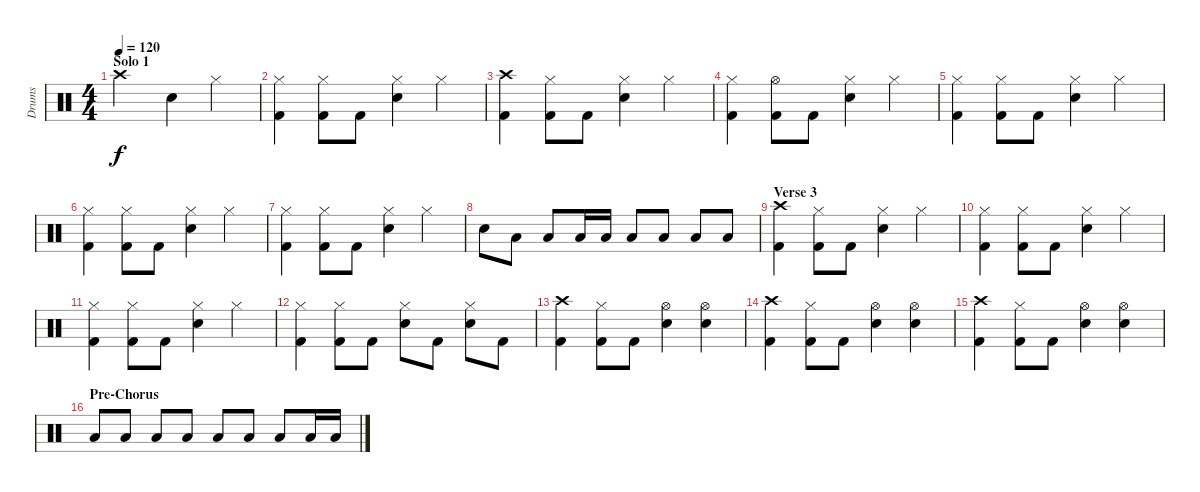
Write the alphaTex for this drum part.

\track ("Drums" "Drums") {instrument percussion}
\staff {score}
\articulation defaults
\ts (4 4)
\section ("" "Solo 1")
\tempo 120
\clef neutral
\ks c "Crash high (hit)".2{dy f} "Snare (hit) 2".4 "Hi-Hat (closed)".4
|
("Hi-Hat (closed)" "Kick (hit) 2").4 ("Hi-Hat (closed)" "Kick (hit) 2").8 "Kick (hit) 2".8 ("Hi-Hat (closed)" "Snare (hit) 2").4 "Hi-Hat (closed)".4 |
("Crash high (hit)" "Kick (hit) 2").4 ("Hi-Hat (closed)" "Kick (hit) 2").8 "Kick (hit) 2".8 ("Hi-Hat (closed)" "Snare (hit) 2").4 "Hi-Hat (closed)".4 |
("Hi-Hat (closed)" "Kick (hit) 2").4 ("Hi-Hat (open)" "Kick (hit) 2").8 "Kick (hit) 2".8 ("Hi-Hat (closed)" "Snare (hit) 2").4 "Hi-Hat (closed)".4 |
("Hi-Hat (closed)" "Kick (hit) 2").4 ("Hi-Hat (closed)" "Kick (hit) 2").8 "Kick (hit) 2".8 ("Hi-Hat (closed)" "Snare (hit) 2").4 "Hi-Hat (closed)".4 |
("Hi-Hat (closed)" "Kick (hit) 2").4 ("Hi-Hat (closed)" "Kick (hit) 2").8 "Kick (hit) 2".8 ("Hi-Hat (closed)" "Snare (hit) 2").4 "Hi-Hat (closed)".4 |
("Hi-Hat (closed)" "Kick (hit) 2").4 ("Hi-Hat (closed)" "Kick (hit) 2").8 "Kick (hit) 2".8 ("Hi-Hat (closed)" "Snare (hit) 2").4 "Hi-Hat (closed)".4 |
"Snare (hit) 2".8 "Low Tom (hit)".8 "Low Tom (hit)".8 "Low Tom (hit)".16 "Low Tom (hit)".16 "Low Tom (hit)".8 "Low Tom (hit)".8 "Low Tom (hit)".8 "Low Tom (hit)".8 |
\section ("" "Verse 3")
("Crash high (hit)" "Kick (hit) 2").4 ("Hi-Hat (closed)" "Kick (hit) 2").8 "Kick (hit) 2".8 ("Hi-Hat (closed)" "Snare (hit) 2").4 "Hi-Hat (closed)".4 |
("Hi-Hat (closed)" "Kick (hit) 2").4 ("Hi-Hat (closed)" "Kick (hit) 2").8 "Kick (hit) 2".8 ("Hi-Hat (closed)" "Snare (hit) 2").4 "Hi-Hat (closed)".4 |
("Hi-Hat (closed)" "Kick (hit) 2").4 ("Hi-Hat (closed)" "Kick (hit) 2").8 "Kick (hit) 2".8 ("Hi-Hat (closed)" "Snare (hit) 2").4 "Hi-Hat (closed)".4 |
("Hi-Hat (closed)" "Kick (hit) 2").4 ("Hi-Hat (closed)" "Kick (hit) 2").8 "Kick (hit) 2".8 ("Hi-Hat (closed)" "Snare (hit) 2").8 "Kick (hit) 2".8 ("Hi-Hat (closed)" "Snare (hit) 2").8 "Kick (hit) 2".8 |
("Crash high (hit)" "Kick (hit) 2").4 ("Hi-Hat (closed)" "Kick (hit) 2").8 "Kick (hit) 2".8 ("Hi-Hat (open)" "Snare (hit) 2").4 ("Hi-Hat (open)" "Snare (hit) 2").4 |
("Crash high (hit)" "Kick (hit) 2").4 ("Hi-Hat (closed)" "Kick (hit) 2").8 "Kick (hit) 2".8 ("Hi-Hat (open)" "Snare (hit) 2").4 ("Hi-Hat (open)" "Snare (hit) 2").4 |
("Crash high (hit)" "Kick (hit) 2").4 ("Hi-Hat (closed)" "Kick (hit) 2").8 "Kick (hit) 2".8 ("Hi-Hat (open)" "Snare (hit) 2").4 ("Hi-Hat (open)" "Snare (hit) 2").4 |
\section ("" "Pre-Chorus")
"Low Tom (hit)".8 "Low Tom (hit)".8 "Low Tom (hit)".8 "Low Tom (hit)".8 "Low Tom (hit)".8 "Low Tom (hit)".8 "Low Tom (hit)".8 "Low Tom (hit)".16 "Low Tom (hit)".16
